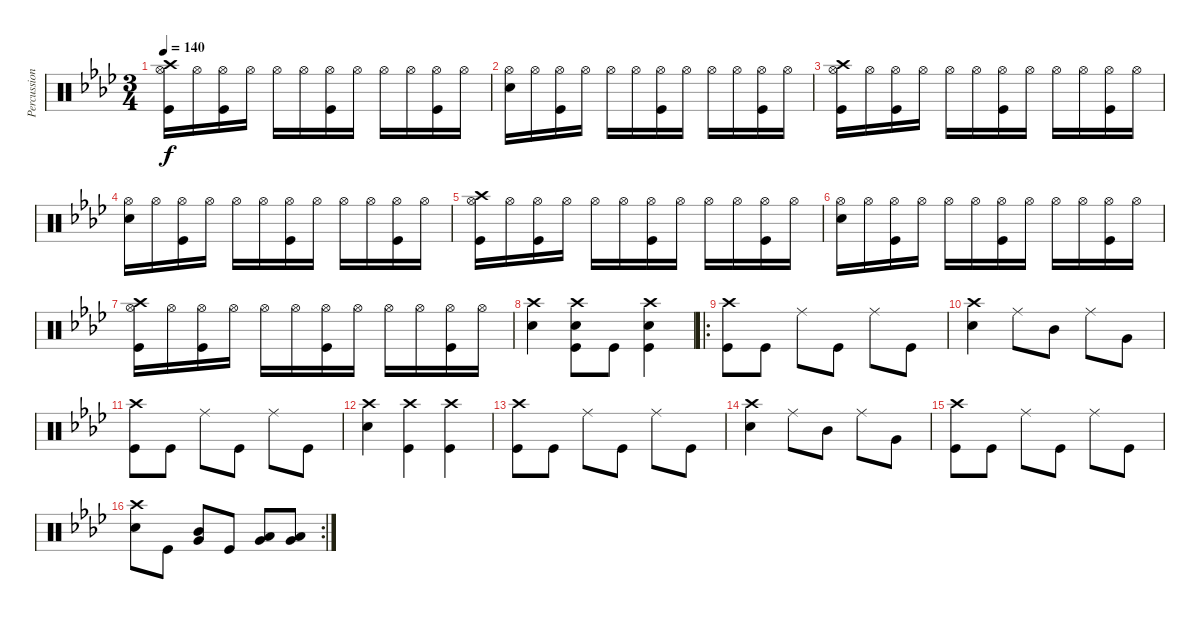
\track ("Percussion" "Percussion") {instrument percussion}
\staff {score}
\articulation defaults
\ts (3 4)
\tempo 140
\clef neutral
\ks ab
("Crash high (hit)" "Hi-Hat (open)" "Kick (hit)").16{dy f} "Hi-Hat (open)".16 ("Hi-Hat (open)" "Kick (hit)").16 "Hi-Hat (open)".16 "Hi-Hat (open)".16 "Hi-Hat (open)".16 ("Hi-Hat (open)" "Kick (hit)").16 "Hi-Hat (open)".16 "Hi-Hat (open)".16 "Hi-Hat (open)".16 ("Hi-Hat (open)" "Kick (hit)").16 "Hi-Hat (open)".16 |
("Hi-Hat (open)" "Snare (hit) 2").16 "Hi-Hat (open)".16 ("Hi-Hat (open)" "Kick (hit)").16 "Hi-Hat (open)".16 "Hi-Hat (open)".16 "Hi-Hat (open)".16 ("Hi-Hat (open)" "Kick (hit)").16 "Hi-Hat (open)".16 "Hi-Hat (open)".16 "Hi-Hat (open)".16 ("Hi-Hat (open)" "Kick (hit)").16 "Hi-Hat (open)".16 |
("Crash high (hit)" "Hi-Hat (open)" "Kick (hit)").16 "Hi-Hat (open)".16 ("Hi-Hat (open)" "Kick (hit)").16 "Hi-Hat (open)".16 "Hi-Hat (open)".16 "Hi-Hat (open)".16 ("Hi-Hat (open)" "Kick (hit)").16 "Hi-Hat (open)".16 "Hi-Hat (open)".16 "Hi-Hat (open)".16 ("Hi-Hat (open)" "Kick (hit)").16 "Hi-Hat (open)".16 |
("Hi-Hat (open)" "Snare (hit) 2").16 "Hi-Hat (open)".16 ("Hi-Hat (open)" "Kick (hit)").16 "Hi-Hat (open)".16 "Hi-Hat (open)".16 "Hi-Hat (open)".16 ("Hi-Hat (open)" "Kick (hit)").16 "Hi-Hat (open)".16 "Hi-Hat (open)".16 "Hi-Hat (open)".16 ("Hi-Hat (open)" "Kick (hit)").16 "Hi-Hat (open)".16 |
("Crash high (hit)" "Hi-Hat (open)" "Kick (hit)").16 "Hi-Hat (open)".16 ("Hi-Hat (open)" "Kick (hit)").16 "Hi-Hat (open)".16 "Hi-Hat (open)".16 "Hi-Hat (open)".16 ("Hi-Hat (open)" "Kick (hit)").16 "Hi-Hat (open)".16 "Hi-Hat (open)".16 "Hi-Hat (open)".16 ("Hi-Hat (open)" "Kick (hit)").16 "Hi-Hat (open)".16 |
("Hi-Hat (open)" "Snare (hit) 2").16 "Hi-Hat (open)".16 ("Hi-Hat (open)" "Kick (hit)").16 "Hi-Hat (open)".16 "Hi-Hat (open)".16 "Hi-Hat (open)".16 ("Hi-Hat (open)" "Kick (hit)").16 "Hi-Hat (open)".16 "Hi-Hat (open)".16 "Hi-Hat (open)".16 ("Hi-Hat (open)" "Kick (hit)").16 "Hi-Hat (open)".16 |
("Crash high (hit)" "Hi-Hat (open)" "Kick (hit)").16 "Hi-Hat (open)".16 ("Hi-Hat (open)" "Kick (hit)").16 "Hi-Hat (open)".16 "Hi-Hat (open)".16 "Hi-Hat (open)".16 ("Hi-Hat (open)" "Kick (hit)").16 "Hi-Hat (open)".16 "Hi-Hat (open)".16 "Hi-Hat (open)".16 ("Hi-Hat (open)" "Kick (hit)").16 "Hi-Hat (open)".16 |
("Crash high (hit)" "Snare (hit) 2").4 ("Crash high (hit)" "Kick (hit)" "Snare (hit) 2").8 "Kick (hit)".8 ("Snare (hit) 2" "Kick (hit)" "Crash high (hit)").4 |
\ro
("Crash high (hit)" "Kick (hit)").8 "Kick (hit)".8 "Ride (middle)".8 "Kick (hit)".8 "Ride (middle)".8 "Kick (hit)".8 |
("Crash high (hit)" "Snare (hit) 2").4 "Ride (middle)".8 "Mid Tom (hit)".8 "Ride (middle)".8 "Very Low Tom (hit)".8 |
("Crash high (hit)" "Kick (hit)").8 "Kick (hit)".8 "Ride (middle)".8 "Kick (hit)".8 "Ride (middle)".8 "Kick (hit)".8 |
("Crash high (hit)" "Snare (hit) 2").4 ("Crash high (hit)" "Kick (hit)").4 ("Crash high (hit)" "Kick (hit)").4 |
("Crash high (hit)" "Kick (hit)").8 "Kick (hit)".8 "Ride (middle)".8 "Kick (hit)".8 "Ride (middle)".8 "Kick (hit)".8 |
("Crash high (hit)" "Snare (hit) 2").4 "Ride (middle)".8 "Mid Tom (hit)".8 "Ride (middle)".8 "Very Low Tom (hit)".8 |
("Crash high (hit)" "Kick (hit)").8 "Kick (hit)".8 "Ride (middle)".8 "Kick (hit)".8 "Ride (middle)".8 "Kick (hit)".8 |
\rc 2
("Crash high (hit)" "Snare (hit) 2").8 "Kick (hit)".8 ("Mid Tom (hit)" "Very Low Tom (hit)").8 "Kick (hit)".8 ("Low Floor Tom (hit)" "Very Low Tom (hit)").8 ("Low Floor Tom (hit)" "Very Low Tom (hit)").8
